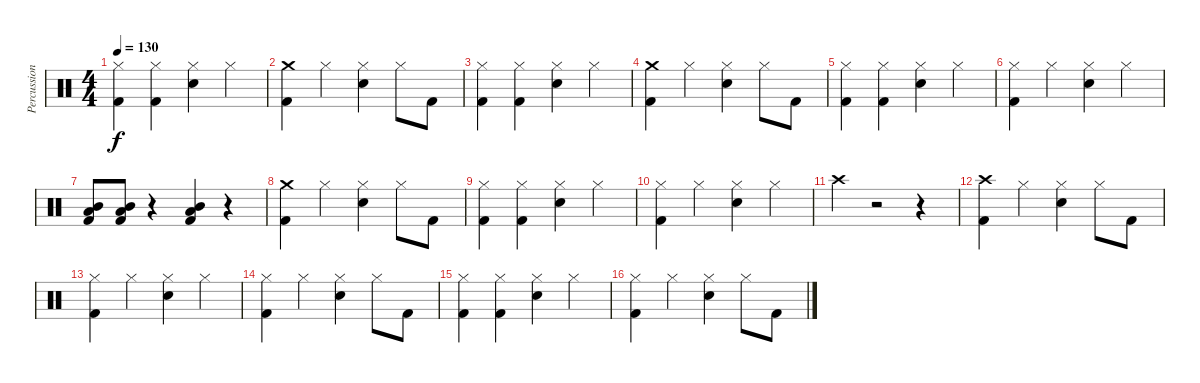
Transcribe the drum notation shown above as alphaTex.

\track ("Percussion" "Percussion") {instrument percussion}
\staff {score}
\articulation defaults
\ts (4 4)
\tempo 130
\clef neutral
\ks c
("Hi-Hat (closed)" "Kick (hit) 2").4{dy f} ("Hi-Hat (closed)" "Kick (hit) 2").4 ("Hi-Hat (closed)" "Snare (hit) 2").4 "Hi-Hat (closed)".4 |
("Crash medium (hit)" "Kick (hit) 2").4 "Hi-Hat (closed)".4 ("Hi-Hat (closed)" "Snare (hit) 2").4 "Hi-Hat (closed)".8 "Kick (hit) 2".8 |
("Kick (hit) 2" "Hi-Hat (closed)").4 ("Kick (hit) 2" "Hi-Hat (closed)").4 ("Snare (hit) 2" "Hi-Hat (closed)").4 "Hi-Hat (closed)".4 |
("Crash medium (hit)" "Kick (hit) 2").4 "Hi-Hat (closed)".4 ("Hi-Hat (closed)" "Snare (hit) 2").4 "Hi-Hat (closed)".8 "Kick (hit) 2".8 |
("Kick (hit) 2" "Hi-Hat (closed)").4 ("Kick (hit) 2" "Hi-Hat (closed)").4 ("Snare (hit) 2" "Hi-Hat (closed)").4 "Hi-Hat (closed)".4 |
("Kick (hit) 2" "Hi-Hat (closed)").4 "Hi-Hat (closed)".4 ("Snare (hit) 2" "Hi-Hat (closed)").4 "Hi-Hat (closed)".4 |
("Low Tom (hit)" "Mid Tom (hit)" "Kick (hit) 2").8 ("Low Floor Tom (hit)" "Mid Tom (hit)" "Kick (hit) 2").8 r.4 ("Low Floor Tom (hit)" "Mid Tom (hit)" "Kick (hit) 2").4 r.4 |
("Crash medium (hit)" "Kick (hit) 2").4 "Hi-Hat (closed)".4 ("Hi-Hat (closed)" "Snare (hit) 2").4 "Hi-Hat (closed)".8 "Kick (hit) 2".8 |
("Kick (hit) 2" "Hi-Hat (closed)").4 ("Kick (hit) 2" "Hi-Hat (closed)").4 ("Snare (hit) 2" "Hi-Hat (closed)").4 "Hi-Hat (closed)".4 |
("Hi-Hat (closed)" "Kick (hit) 2").4 "Hi-Hat (closed)".4 ("Snare (hit) 2" "Hi-Hat (closed)").4 "Hi-Hat (closed)".4 |
"Crash high (hit)".4 r.2 r.4 |
("Kick (hit) 2" "Crash high (hit)").4 "Hi-Hat (closed)".4 ("Hi-Hat (closed)" "Snare (hit) 2").4 "Hi-Hat (closed)".8 "Kick (hit) 2".8 |
("Hi-Hat (closed)" "Kick (hit) 2").4 "Hi-Hat (closed)".4 ("Hi-Hat (closed)" "Snare (hit) 2").4 "Hi-Hat (closed)".4 |
("Hi-Hat (closed)" "Kick (hit) 2").4 "Hi-Hat (closed)".4 ("Hi-Hat (closed)" "Snare (hit) 2").4 "Hi-Hat (closed)".8 "Kick (hit) 2".8 |
("Hi-Hat (closed)" "Kick (hit) 2").4 ("Hi-Hat (closed)" "Kick (hit) 2").4 ("Hi-Hat (closed)" "Snare (hit) 2").4 "Hi-Hat (closed)".4 |
("Hi-Hat (closed)" "Kick (hit) 2").4 "Hi-Hat (closed)".4 ("Hi-Hat (closed)" "Snare (hit) 2").4 "Hi-Hat (closed)".8 "Kick (hit) 2".8
